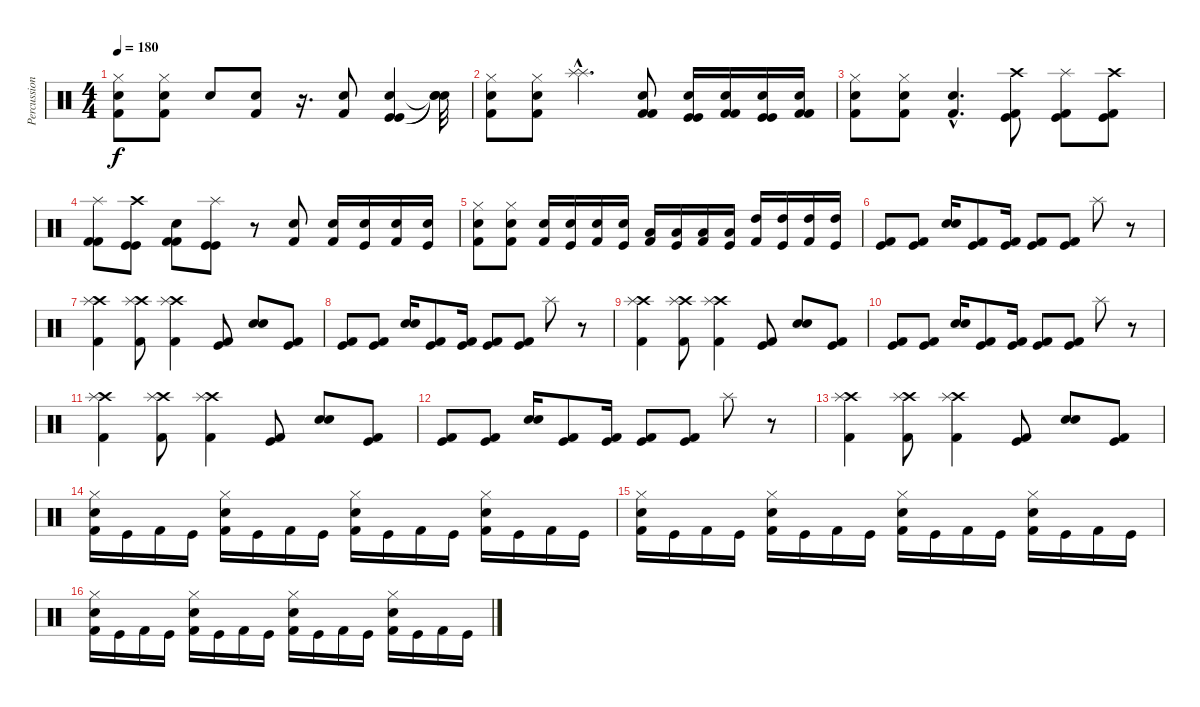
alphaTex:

\track ("Percussion" "Percussion") {instrument percussion}
\staff {score}
\articulation defaults
\ts (4 4)
\tempo 180
\clef neutral
\ks c
("Hi-Hat (closed)" "Electric Snare (hit)" "Kick (hit) 2").8{dy f} ("Hi-Hat (closed)" "Electric Snare (hit)" "Kick (hit) 2").8 "Electric Snare (hit)".8 ("Electric Snare (hit)" "Kick (hit) 2").8 r.16{d} ("Electric Snare (hit)" "Kick (hit) 2").8 ("Kick (hit)" "Electric Snare (hit)" "Kick (hit)").4 ("Snare (hit)"{t} "Snare (hit)"{t} "Snare (hit)"{t}).32 |
("Hi-Hat (closed)" "Electric Snare (hit)" "Kick (hit) 2").8 ("Hi-Hat (closed)" "Electric Snare (hit)" "Kick (hit) 2").8 ("Splash (hit)"{hac} "Splash (hit)"{hac}).4{d} ("Kick (hit) 2" "Electric Snare (hit)" "Kick (hit) 2").8 ("Kick (hit)" "Electric Snare (hit)" "Kick (hit)").16 ("Kick (hit) 2" "Electric Snare (hit)" "Kick (hit) 2").16 ("Kick (hit)" "Electric Snare (hit)" "Kick (hit)").16 ("Kick (hit) 2" "Electric Snare (hit)" "Kick (hit) 2").16 |
("Hi-Hat (closed)" "Electric Snare (hit)" "Kick (hit) 2").8 ("Hi-Hat (closed)" "Electric Snare (hit)" "Kick (hit) 2").8 ("Electric Snare (hit)"{hac} "Kick (hit) 2"{hac}).4{d} ("Crash high (hit)" "Kick (hit)" "Kick (hit) 2").8 ("Splash (hit)" "Kick (hit)" "Kick (hit) 2").8 ("Crash high (hit)" "Kick (hit)" "Kick (hit) 2").8 |
("Splash (hit)" "Kick (hit) 2" "Kick (hit) 2").8 ("Crash high (hit)" "Kick (hit)" "Kick (hit)").8 ("Electric Snare (hit)" "Kick (hit) 2" "Kick (hit) 2").8 ("Splash (hit)" "Kick (hit)" "Kick (hit)").8 r.8 ("Electric Snare (hit)" "Kick (hit) 2").8 ("Electric Snare (hit)" "Kick (hit) 2").16 ("Electric Snare (hit)" "Kick (hit)").16 ("Electric Snare (hit)" "Kick (hit) 2").16 ("Electric Snare (hit)" "Kick (hit)").16 |
("Hi-Hat (closed)" "Electric Snare (hit)" "Kick (hit) 2").8 ("Hi-Hat (closed)" "Electric Snare (hit)" "Kick (hit) 2").8 ("Electric Snare (hit)" "Kick (hit) 2").16 ("Electric Snare (hit)" "Kick (hit)").16 ("Electric Snare (hit)" "Kick (hit) 2").16 ("Electric Snare (hit)" "Kick (hit)").16 ("Low Tom (hit)" "Kick (hit) 2").16 ("Low Tom (hit)" "Kick (hit)").16 ("Low Tom (hit)" "Kick (hit) 2").16 ("Low Tom (hit)" "Kick (hit)").16 ("High Tom (hit)" "Kick (hit) 2").16 ("High Tom (hit)" "Kick (hit)").16 ("High Tom (hit)" "Kick (hit) 2").16 ("High Tom (hit)" "Kick (hit)").16 |
("Kick (hit)" "Kick (hit) 2").8 ("Kick (hit)" "Kick (hit) 2").8 ("Electric Snare (hit)" "Electric Snare (hit)").16 ("Kick (hit)" "Kick (hit) 2").8 ("Kick (hit)" "Kick (hit) 2").16 ("Kick (hit)" "Kick (hit) 2").8 ("Kick (hit)" "Kick (hit) 2").8 "Splash (hit)".8 r.8 |
("Kick (hit) 2" "Crash high (hit)" "Splash (hit)").4 ("Kick (hit) 2" "Crash high (hit)" "Splash (hit)").8 ("Crash high (hit)" "Splash (hit)" "Kick (hit) 2").4 ("Kick (hit)" "Kick (hit) 2").8 ("Electric Snare (hit)" "Electric Snare (hit)").8 ("Kick (hit)" "Kick (hit) 2").8 |
("Kick (hit)" "Kick (hit) 2").8 ("Kick (hit)" "Kick (hit) 2").8 ("Electric Snare (hit)" "Electric Snare (hit)").16 ("Kick (hit)" "Kick (hit) 2").8 ("Kick (hit)" "Kick (hit) 2").16 ("Kick (hit)" "Kick (hit) 2").8 ("Kick (hit)" "Kick (hit) 2").8 "Splash (hit)".8 r.8 |
("Kick (hit) 2" "Crash high (hit)" "Splash (hit)").4 ("Kick (hit) 2" "Crash high (hit)" "Splash (hit)").8 ("Crash high (hit)" "Splash (hit)" "Kick (hit) 2").4 ("Kick (hit)" "Kick (hit) 2").8 ("Electric Snare (hit)" "Electric Snare (hit)").8 ("Kick (hit)" "Kick (hit) 2").8 |
("Kick (hit)" "Kick (hit) 2").8 ("Kick (hit)" "Kick (hit) 2").8 ("Electric Snare (hit)" "Electric Snare (hit)").16 ("Kick (hit)" "Kick (hit) 2").8 ("Kick (hit)" "Kick (hit) 2").16 ("Kick (hit)" "Kick (hit) 2").8 ("Kick (hit)" "Kick (hit) 2").8 "Splash (hit)".8 r.8 |
("Kick (hit) 2" "Crash high (hit)" "Splash (hit)").4 ("Kick (hit) 2" "Crash high (hit)" "Splash (hit)").8 ("Crash high (hit)" "Splash (hit)" "Kick (hit) 2").4 ("Kick (hit)" "Kick (hit) 2").8 ("Electric Snare (hit)" "Electric Snare (hit)").8 ("Kick (hit)" "Kick (hit) 2").8 |
("Kick (hit)" "Kick (hit) 2").8 ("Kick (hit)" "Kick (hit) 2").8 ("Electric Snare (hit)" "Electric Snare (hit)").16 ("Kick (hit)" "Kick (hit) 2").8 ("Kick (hit)" "Kick (hit) 2").16 ("Kick (hit)" "Kick (hit) 2").8 ("Kick (hit)" "Kick (hit) 2").8 "Splash (hit)".8 r.8 |
("Kick (hit) 2" "Crash high (hit)" "Splash (hit)").4 ("Kick (hit) 2" "Crash high (hit)" "Splash (hit)").8 ("Crash high (hit)" "Splash (hit)" "Kick (hit) 2").4 ("Kick (hit)" "Kick (hit) 2").8 ("Electric Snare (hit)" "Electric Snare (hit)").8 ("Kick (hit)" "Kick (hit) 2").8 |
("Electric Snare (hit)" "Hi-Hat (closed)" "Kick (hit) 2").16 "Kick (hit)".16 "Kick (hit) 2".16 "Kick (hit)".16 ("Hi-Hat (closed)" "Electric Snare (hit)" "Kick (hit) 2").16 "Kick (hit)".16 "Kick (hit) 2".16 "Kick (hit)".16 ("Hi-Hat (closed)" "Electric Snare (hit)" "Kick (hit) 2").16 "Kick (hit)".16 "Kick (hit) 2".16 "Kick (hit)".16 ("Hi-Hat (closed)" "Electric Snare (hit)" "Kick (hit) 2").16 "Kick (hit)".16 "Kick (hit) 2".16 "Kick (hit)".16 |
("Electric Snare (hit)" "Hi-Hat (closed)" "Kick (hit) 2").16 "Kick (hit)".16 "Kick (hit) 2".16 "Kick (hit)".16 ("Hi-Hat (closed)" "Electric Snare (hit)" "Kick (hit) 2").16 "Kick (hit)".16 "Kick (hit) 2".16 "Kick (hit)".16 ("Hi-Hat (closed)" "Electric Snare (hit)" "Kick (hit) 2").16 "Kick (hit)".16 "Kick (hit) 2".16 "Kick (hit)".16 ("Hi-Hat (closed)" "Electric Snare (hit)" "Kick (hit) 2").16 "Kick (hit)".16 "Kick (hit) 2".16 "Kick (hit)".16 |
("Electric Snare (hit)" "Hi-Hat (closed)" "Kick (hit) 2").16 "Kick (hit)".16 "Kick (hit) 2".16 "Kick (hit)".16 ("Hi-Hat (closed)" "Electric Snare (hit)" "Kick (hit) 2").16 "Kick (hit)".16 "Kick (hit) 2".16 "Kick (hit)".16 ("Hi-Hat (closed)" "Electric Snare (hit)" "Kick (hit) 2").16 "Kick (hit)".16 "Kick (hit) 2".16 "Kick (hit)".16 ("Hi-Hat (closed)" "Electric Snare (hit)" "Kick (hit) 2").16 "Kick (hit)".16 "Kick (hit) 2".16 "Kick (hit)".16
